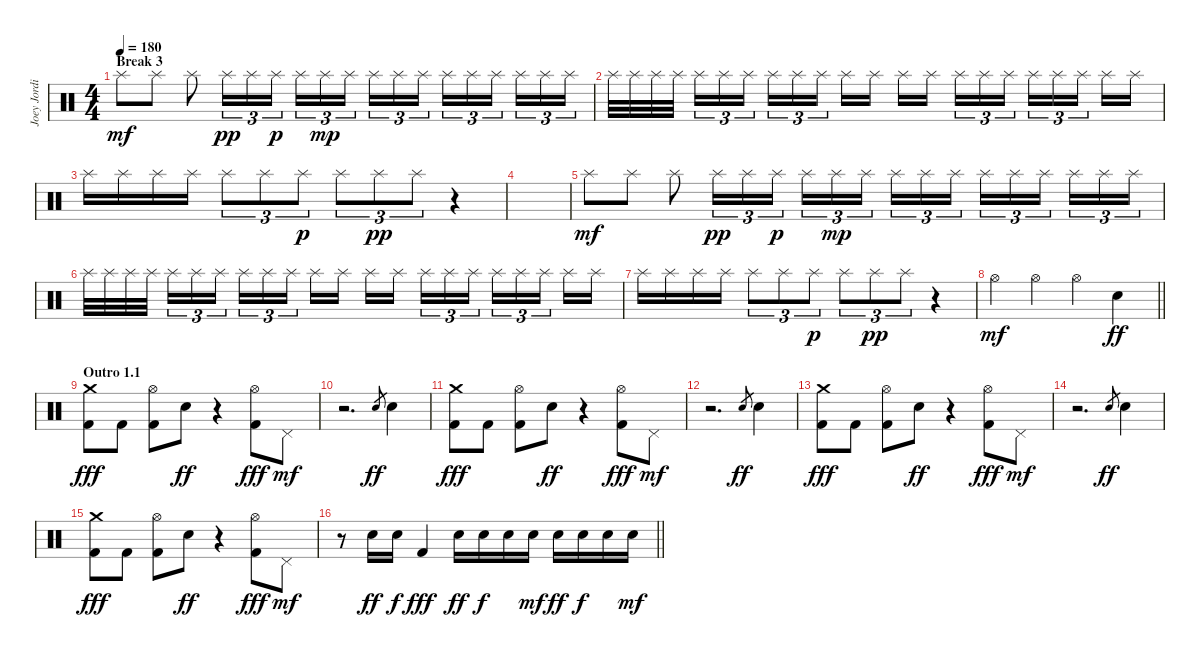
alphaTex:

\track ("Joey Jordison" "Joey Jordi") {instrument percussion}
\staff {score}
\articulation defaults
\ts (4 4)
\section ("" "Break 3")
\tempo 180
\clef neutral
\ks c "Splash (hit)".8{dy mf} "Splash (hit)".8 "Splash (hit)".8 "Splash (hit)".16{tu (3 2) dy pp} "Splash (hit)".16{tu (3 2)} "Splash (hit)".16{tu (3 2) dy p} "Splash (hit)".16{tu (3 2)} "Splash (hit)".16{tu (3 2) dy mp} "Splash (hit)".16{tu (3 2) beam splitsecondary} "Splash (hit)".16{tu (3 2)} "Splash (hit)".16{tu (3 2)} "Splash (hit)".16{tu (3 2)} "Splash (hit)".16{tu (3 2)} "Splash (hit)".16{tu (3 2)} "Splash (hit)".16{tu (3 2) beam splitsecondary} "Splash (hit)".16{tu (3 2)} "Splash (hit)".16{tu (3 2)} "Splash (hit)".16{tu (3 2)}
|
"Splash (hit)".32 "Splash (hit)".32 "Splash (hit)".32 "Splash (hit)".32{beam splitsecondary} "Splash (hit)".16{tu (3 2)} "Splash (hit)".16{tu (3 2)} "Splash (hit)".16{tu (3 2)} "Splash (hit)".16{tu (3 2)} "Splash (hit)".16{tu (3 2)} "Splash (hit)".16{tu (3 2) beam splitsecondary} "Splash (hit)".16 "Splash (hit)".16 "Splash (hit)".16 "Splash (hit)".16{beam splitsecondary} "Splash (hit)".16{tu (3 2)} "Splash (hit)".16{tu (3 2)} "Splash (hit)".16{tu (3 2)} "Splash (hit)".16{tu (3 2)} "Splash (hit)".16{tu (3 2)} "Splash (hit)".16{tu (3 2) beam splitsecondary} "Splash (hit)".16 "Splash (hit)".16 |
"Splash (hit)".16 "Splash (hit)".16 "Splash (hit)".16 "Splash (hit)".16 "Splash (hit)".8{tu (3 2)} "Splash (hit)".8{tu (3 2)} "Splash (hit)".8{tu (3 2) dy p} "Splash (hit)".8{tu (3 2)} "Splash (hit)".8{tu (3 2) dy pp} "Splash (hit)".8{tu (3 2)} r.4 |
|
"Splash (hit)".8{dy mf} "Splash (hit)".8 "Splash (hit)".8 "Splash (hit)".16{tu (3 2) dy pp} "Splash (hit)".16{tu (3 2)} "Splash (hit)".16{tu (3 2) dy p} "Splash (hit)".16{tu (3 2)} "Splash (hit)".16{tu (3 2) dy mp} "Splash (hit)".16{tu (3 2) beam splitsecondary} "Splash (hit)".16{tu (3 2)} "Splash (hit)".16{tu (3 2)} "Splash (hit)".16{tu (3 2)} "Splash (hit)".16{tu (3 2)} "Splash (hit)".16{tu (3 2)} "Splash (hit)".16{tu (3 2) beam splitsecondary} "Splash (hit)".16{tu (3 2)} "Splash (hit)".16{tu (3 2)} "Splash (hit)".16{tu (3 2)} |
"Splash (hit)".32 "Splash (hit)".32 "Splash (hit)".32 "Splash (hit)".32{beam splitsecondary} "Splash (hit)".16{tu (3 2)} "Splash (hit)".16{tu (3 2)} "Splash (hit)".16{tu (3 2)} "Splash (hit)".16{tu (3 2)} "Splash (hit)".16{tu (3 2)} "Splash (hit)".16{tu (3 2) beam splitsecondary} "Splash (hit)".16 "Splash (hit)".16 "Splash (hit)".16 "Splash (hit)".16{beam splitsecondary} "Splash (hit)".16{tu (3 2)} "Splash (hit)".16{tu (3 2)} "Splash (hit)".16{tu (3 2)} "Splash (hit)".16{tu (3 2)} "Splash (hit)".16{tu (3 2)} "Splash (hit)".16{tu (3 2) beam splitsecondary} "Splash (hit)".16 "Splash (hit)".16 |
"Splash (hit)".16 "Splash (hit)".16 "Splash (hit)".16 "Splash (hit)".16 "Splash (hit)".8{tu (3 2)} "Splash (hit)".8{tu (3 2)} "Splash (hit)".8{tu (3 2) dy p} "Splash (hit)".8{tu (3 2)} "Splash (hit)".8{tu (3 2) dy pp} "Splash (hit)".8{tu (3 2)} r.4 |
\barLineRight lightlight "Hi-Hat (open)".4{dy mf} "Hi-Hat (open)".4 "Hi-Hat (open)".4 "Electric Snare (hit)".4{dy ff}
|
\section ("" "Outro 1.1")
("Crash medium (hit)" "Kick (hit) 2").8{dy fff} "Kick (hit) 2".8 ("Hi-Hat (open)" "Kick (hit) 2").8 "Electric Snare (hit)".8{dy ff} r.4 ("Hi-Hat (open)" "Kick (hit) 2").8{dy fff} "Pedal Hi-Hat (hit)".8{dy mf} |
r.2{d} "Electric Snare (hit)".8{gr dy ff} "Electric Snare (hit)".4 |
("Crash medium (hit)" "Kick (hit) 2").8{dy fff} "Kick (hit) 2".8 ("Hi-Hat (open)" "Kick (hit) 2").8 "Electric Snare (hit)".8{dy ff} r.4 ("Hi-Hat (open)" "Kick (hit) 2").8{dy fff} "Pedal Hi-Hat (hit)".8{dy mf} |
r.2{d} "Electric Snare (hit)".8{gr dy ff} "Electric Snare (hit)".4 |
("Crash medium (hit)" "Kick (hit) 2").8{dy fff} "Kick (hit) 2".8 ("Hi-Hat (open)" "Kick (hit) 2").8 "Electric Snare (hit)".8{dy ff} r.4 ("Hi-Hat (open)" "Kick (hit) 2").8{dy fff} "Pedal Hi-Hat (hit)".8{dy mf} |
r.2{d} "Electric Snare (hit)".8{gr dy ff} "Electric Snare (hit)".4 |
("Crash medium (hit)" "Kick (hit) 2").8{dy fff} "Kick (hit) 2".8 ("Hi-Hat (open)" "Kick (hit) 2").8 "Electric Snare (hit)".8{dy ff} r.4 ("Hi-Hat (open)" "Kick (hit) 2").8{dy fff} "Pedal Hi-Hat (hit)".8{dy mf} |
\barLineRight lightlight
r.8 "Electric Snare (hit)".16{dy ff} "Electric Snare (hit)".16{dy f} "Kick (hit) 2".4{dy fff} "Electric Snare (hit)".16{dy ff} "Electric Snare (hit)".16{dy f} "Electric Snare (hit)".16 "Electric Snare (hit)".16{dy mf} "Electric Snare (hit)".16{dy ff} "Electric Snare (hit)".16{dy f} "Electric Snare (hit)".16 "Electric Snare (hit)".16{dy mf}
